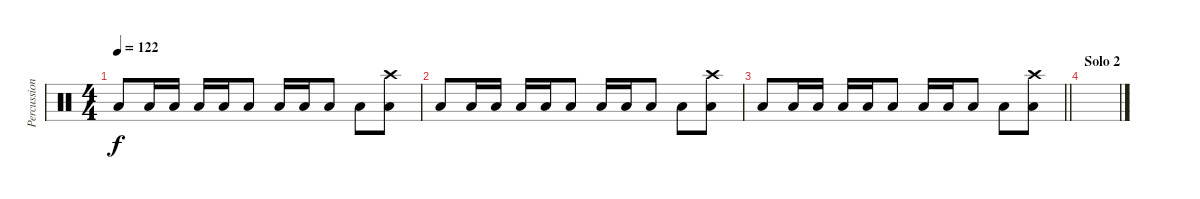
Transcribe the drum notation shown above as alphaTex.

\track ("Percussion" "Percussion") {instrument percussion}
\staff {score}
\articulation defaults
\ts (4 4)
\tempo 122
\clef neutral
\ks c "Low Tom (hit)".8{dy f} "Low Tom (hit)".16 "Low Tom (hit)".16 "Low Tom (hit)".16 "Low Tom (hit)".16 "Low Tom (hit)".8 "Low Tom (hit)".16 "Low Tom (hit)".16 "Low Tom (hit)".8 "Low Tom (hit)".8
("Low Tom (hit)" "Crash high (hit)").8 |
"Low Tom (hit)".8 "Low Tom (hit)".16 "Low Tom (hit)".16 "Low Tom (hit)".16 "Low Tom (hit)".16 "Low Tom (hit)".8 "Low Tom (hit)".16 "Low Tom (hit)".16 "Low Tom (hit)".8 "Low Tom (hit)".8 ("Low Tom (hit)" "Crash high (hit)").8 |
\barLineRight lightlight "Low Tom (hit)".8 "Low Tom (hit)".16 "Low Tom (hit)".16 "Low Tom (hit)".16 "Low Tom (hit)".16 "Low Tom (hit)".8 "Low Tom (hit)".16 "Low Tom (hit)".16 "Low Tom (hit)".8 "Low Tom (hit)".8
("Low Tom (hit)" "Crash high (hit)").8 |
\section ("" "Solo 2")
